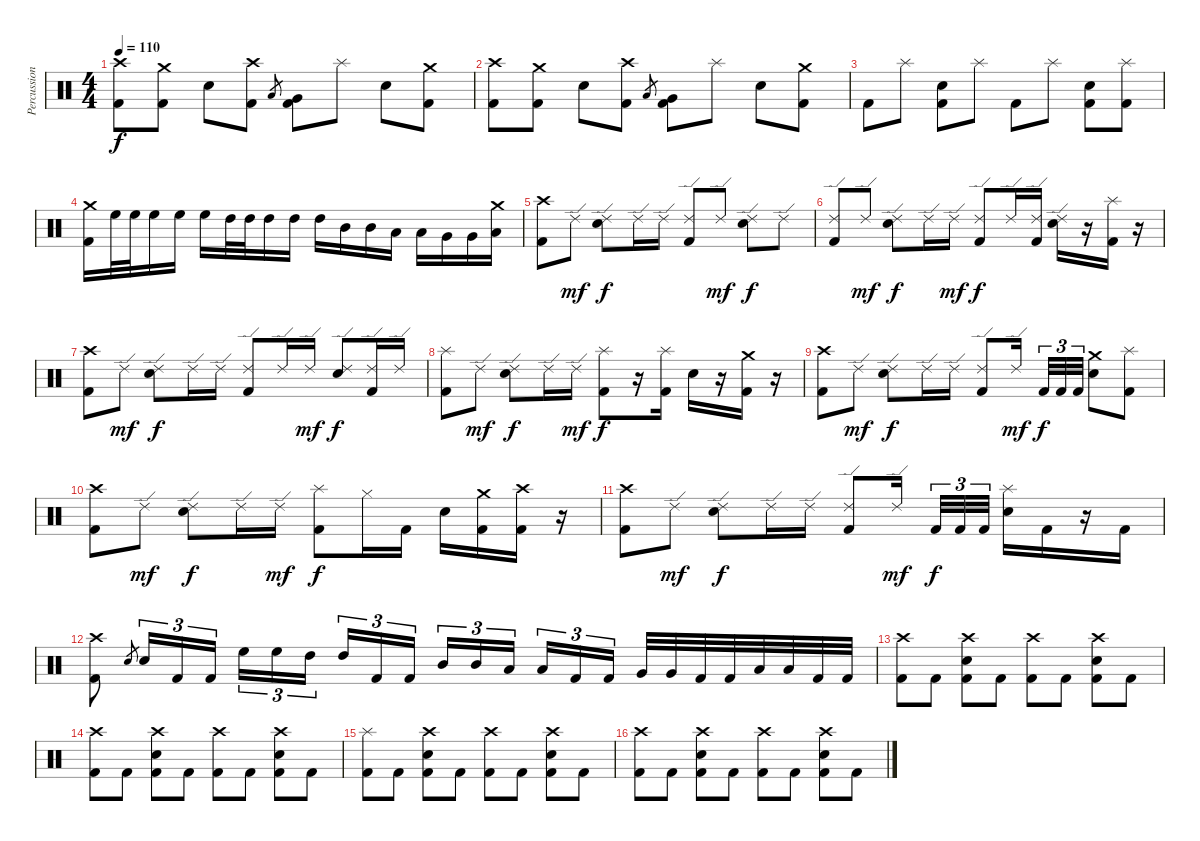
\track ("Percussion" "Percussion") {instrument percussion}
\staff {score}
\articulation defaults
\ts (4 4)
\tempo 110
\clef neutral
\ks c
("Crash high (hit)" "Kick (hit) 2").8{dy f} ("Crash medium (hit)" "Kick (hit) 2").8 "Electric Snare (hit)".8 ("Crash high (hit)" "Kick (hit) 2").8 "Low Tom (hit)".8{gr} ("Very Low Tom (hit)" "Kick (hit) 2").8 "Splash (hit)".8 "Electric Snare (hit)".8 ("Crash medium (hit)" "Kick (hit) 2").8 |
("Crash high (hit)" "Kick (hit) 2").8 ("Crash medium (hit)" "Kick (hit) 2").8 "Electric Snare (hit)".8 ("Crash high (hit)" "Kick (hit) 2").8 "Low Tom (hit)".8{gr} ("Very Low Tom (hit)" "Kick (hit) 2").8 "Splash (hit)".8 "Electric Snare (hit)".8 ("Crash medium (hit)" "Kick (hit) 2").8 |
"Kick (hit) 2".8 "Splash (hit)".8 ("Electric Snare (hit)" "Kick (hit) 2").8 "Splash (hit)".8 "Kick (hit) 2".8 "Splash (hit)".8 ("Electric Snare (hit)" "Kick (hit) 2").8 ("Splash (hit)" "Kick (hit) 2").8 |
("Crash medium (hit)" "Kick (hit) 2").16 "High Floor Tom (hit)".32 "High Floor Tom (hit)".32 "High Floor Tom (hit)".16 "High Floor Tom (hit)".16 "High Floor Tom (hit)".16 "High Tom (hit)".32 "High Tom (hit)".32 "High Tom (hit)".16 "High Tom (hit)".16 "High Tom (hit)".16 "Mid Tom (hit)".16 "Mid Tom (hit)".16 "Low Tom (hit)".16 "Low Tom (hit)".16 "Very Low Tom (hit)".16 "Very Low Tom (hit)".16 ("Crash medium (hit)" "Low Floor Tom (hit)").16 |
("Crash high (hit)" "Kick (hit) 2").8 "Ride (edge) 2".8{dy mf} ("Ride (edge) 2" "Electric Snare (hit)").8{dy f} "Ride (edge) 2".16 "Ride (edge) 2".16 ("Ride (edge) 2" "Kick (hit) 2").8 "Ride (edge) 2".8{dy mf} ("Ride (edge) 2" "Electric Snare (hit)").8{dy f} "Ride (edge) 2".8 |
("Ride (edge) 2" "Kick (hit) 2").8 "Ride (edge) 2".8{dy mf} ("Ride (edge) 2" "Electric Snare (hit)").8{dy f} "Ride (edge) 2".16 "Ride (edge) 2".16{dy mf} ("Ride (edge) 2" "Kick (hit) 2").8{dy f} "Ride (edge) 2".16 ("Ride (edge) 2" "Kick (hit) 2").16 ("Ride (edge) 2" "Electric Snare (hit)").16 r.16 ("Splash (hit)" "Kick (hit) 2").16 r.16 |
("Crash high (hit)" "Kick (hit) 2").8 "Ride (edge) 2".8{dy mf} ("Ride (edge) 2" "Electric Snare (hit)").8{dy f} "Ride (edge) 2".16 "Ride (edge) 2".16 ("Ride (edge) 2" "Kick (hit) 2").8 "Ride (edge) 2".16 "Ride (edge) 2".16{dy mf} ("Ride (edge) 2" "Electric Snare (hit)").8{dy f} ("Ride (edge) 2" "Kick (hit) 2").16 "Ride (edge) 2".16 |
("Splash (hit)" "Kick (hit) 2").8 "Ride (edge) 2".8{dy mf} ("Ride (edge) 2" "Electric Snare (hit)").8{dy f} "Ride (edge) 2".16 "Ride (edge) 2".16{dy mf} ("Splash (hit)" "Kick (hit) 2").8{dy f} r.16 ("Splash (hit)" "Kick (hit) 2").16 "Electric Snare (hit)".16 r.16 ("Crash medium (hit)" "Kick (hit) 2").16 r.16 |
("Crash high (hit)" "Kick (hit) 2").8 "Ride (edge) 2".8{dy mf} ("Ride (edge) 2" "Electric Snare (hit)").8{dy f} "Ride (edge) 2".16 "Ride (edge) 2".16 ("Ride (edge) 2" "Kick (hit) 2").8 "Ride (edge) 2".16{dy mf} "Kick (hit) 2".32{tu (3 2) dy f} "Kick (hit) 2".32{tu (3 2)} "Kick (hit) 2".32{tu (3 2)} ("Crash medium (hit)" "Electric Snare (hit)").8 ("Splash (hit)" "Kick (hit) 2").8 |
("Crash high (hit)" "Kick (hit) 2").8 "Ride (edge) 2".8{dy mf} ("Ride (edge) 2" "Electric Snare (hit)").8{dy f} "Ride (edge) 2".16 "Ride (edge) 2".16{dy mf} ("Splash (hit)" "Kick (hit) 2").8{dy f} "Hi-Hat (closed)".16 "Kick (hit) 2".16 "Electric Snare (hit)".16 ("Crash medium (hit)" "Kick (hit) 2").16 ("Crash high (hit)" "Kick (hit) 2").16 r.16 |
("Crash high (hit)" "Kick (hit) 2").8 "Ride (edge) 2".8{dy mf} ("Ride (edge) 2" "Electric Snare (hit)").8{dy f} "Ride (edge) 2".16 "Ride (edge) 2".16 ("Ride (edge) 2" "Kick (hit) 2").8 "Ride (edge) 2".16{dy mf} "Kick (hit) 2".32{tu (3 2) dy f} "Kick (hit) 2".32{tu (3 2)} "Kick (hit) 2".32{tu (3 2)} ("Splash (hit)" "Electric Snare (hit)").16 "Kick (hit) 2".16 r.16 "Kick (hit) 2".16 |
("Crash high (hit)" "Kick (hit) 2").8 "Electric Snare (hit)".8{gr} "Electric Snare (hit)".16{tu (3 2)} "Kick (hit) 2".16{tu (3 2)} "Kick (hit) 2".16{tu (3 2)} "High Floor Tom (hit)".16{tu (3 2)} "High Floor Tom (hit)".16{tu (3 2)} "High Tom (hit)".16{tu (3 2)} "High Tom (hit)".16{tu (3 2)} "Kick (hit) 2".16{tu (3 2)} "Kick (hit) 2".16{tu (3 2)} "Mid Tom (hit)".16{tu (3 2)} "Mid Tom (hit)".16{tu (3 2)} "Low Tom (hit)".16{tu (3 2)} "Low Tom (hit)".16{tu (3 2)} "Kick (hit) 2".16{tu (3 2)} "Kick (hit) 2".16{tu (3 2)} "Very Low Tom (hit)".32 "Very Low Tom (hit)".32 "Kick (hit) 2".32 "Kick (hit) 2".32 "Low Floor Tom (hit)".32 "Low Floor Tom (hit)".32 "Kick (hit) 2".32 "Kick (hit) 2".32 |
("Crash high (hit)" "Kick (hit) 2").8 "Kick (hit) 2".8 ("Crash high (hit)" "Electric Snare (hit)" "Kick (hit) 2").8 "Kick (hit) 2".8 ("Crash high (hit)" "Kick (hit) 2").8 "Kick (hit) 2".8 ("Crash high (hit)" "Electric Snare (hit)" "Kick (hit) 2").8 "Kick (hit) 2".8 |
("Crash high (hit)" "Kick (hit) 2").8 "Kick (hit) 2".8 ("Crash high (hit)" "Electric Snare (hit)" "Kick (hit) 2").8 "Kick (hit) 2".8 ("Crash high (hit)" "Kick (hit) 2").8 "Kick (hit) 2".8 ("Crash high (hit)" "Electric Snare (hit)" "Kick (hit) 2").8 "Kick (hit) 2".8 |
("Splash (hit)" "Kick (hit) 2").8 "Kick (hit) 2".8 ("Crash high (hit)" "Electric Snare (hit)" "Kick (hit) 2").8 "Kick (hit) 2".8 ("Crash high (hit)" "Kick (hit) 2").8 "Kick (hit) 2".8 ("Crash high (hit)" "Electric Snare (hit)" "Kick (hit) 2").8 "Kick (hit) 2".8 |
("Crash high (hit)" "Kick (hit) 2").8 "Kick (hit) 2".8 ("Crash high (hit)" "Electric Snare (hit)" "Kick (hit) 2").8 "Kick (hit) 2".8 ("Crash high (hit)" "Kick (hit) 2").8 "Kick (hit) 2".8 ("Crash high (hit)" "Electric Snare (hit)" "Kick (hit) 2").8 "Kick (hit) 2".8
